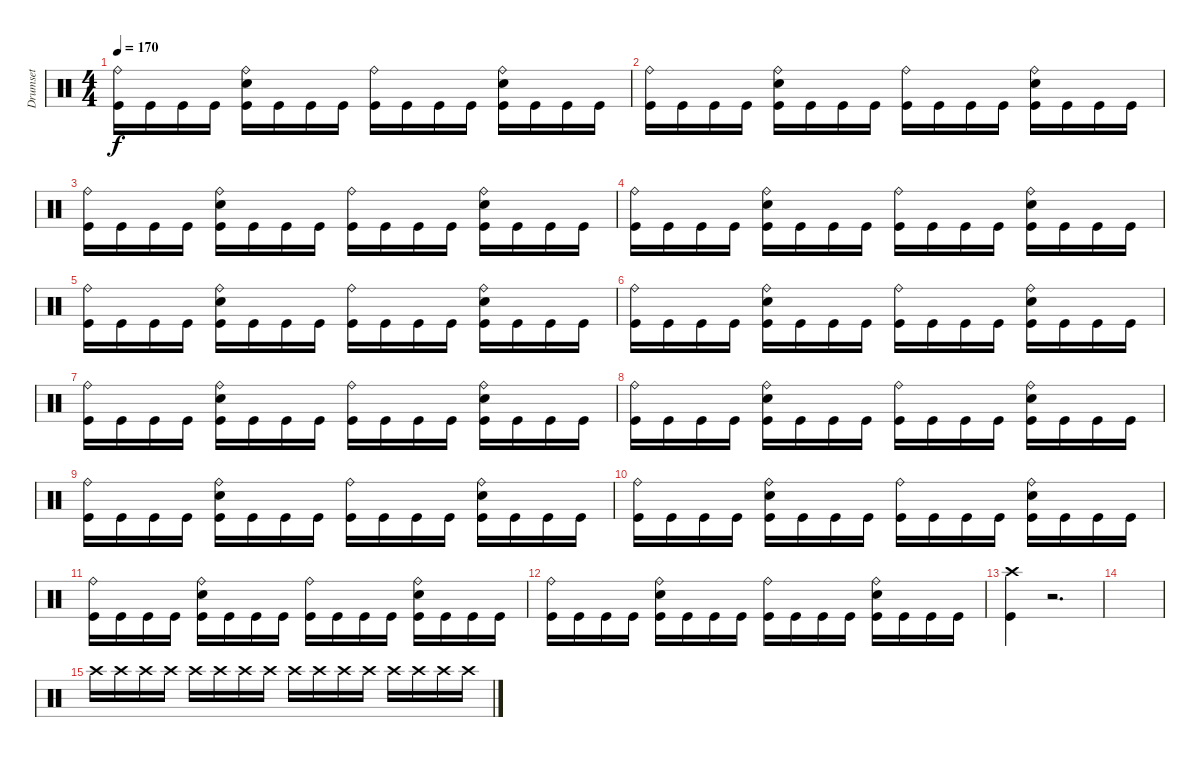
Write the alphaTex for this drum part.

\track ("Drumset" "Drumset") {instrument percussion}
\staff {score}
\articulation defaults
\ts (4 4)
\tempo 170
\clef neutral
\ks c
("Ride (bell)" "Kick (hit)").16{dy f} "Kick (hit)".16 "Kick (hit)".16 "Kick (hit)".16 ("Ride (bell)" "Snare (hit) 2" "Kick (hit)").16 "Kick (hit)".16 "Kick (hit)".16 "Kick (hit)".16 ("Ride (bell)" "Kick (hit)").16 "Kick (hit)".16 "Kick (hit)".16 "Kick (hit)".16 ("Ride (bell)" "Snare (hit) 2" "Kick (hit)").16 "Kick (hit)".16 "Kick (hit)".16 "Kick (hit)".16 |
("Ride (bell)" "Kick (hit)").16 "Kick (hit)".16 "Kick (hit)".16 "Kick (hit)".16 ("Ride (bell)" "Snare (hit) 2" "Kick (hit)").16 "Kick (hit)".16 "Kick (hit)".16 "Kick (hit)".16 ("Ride (bell)" "Kick (hit)").16 "Kick (hit)".16 "Kick (hit)".16 "Kick (hit)".16 ("Ride (bell)" "Snare (hit) 2" "Kick (hit)").16 "Kick (hit)".16 "Kick (hit)".16 "Kick (hit)".16 |
("Ride (bell)" "Kick (hit)").16 "Kick (hit)".16 "Kick (hit)".16 "Kick (hit)".16 ("Ride (bell)" "Snare (hit) 2" "Kick (hit)").16 "Kick (hit)".16 "Kick (hit)".16 "Kick (hit)".16 ("Ride (bell)" "Kick (hit)").16 "Kick (hit)".16 "Kick (hit)".16 "Kick (hit)".16 ("Ride (bell)" "Snare (hit) 2" "Kick (hit)").16 "Kick (hit)".16 "Kick (hit)".16 "Kick (hit)".16 |
("Ride (bell)" "Kick (hit)").16 "Kick (hit)".16 "Kick (hit)".16 "Kick (hit)".16 ("Ride (bell)" "Snare (hit) 2" "Kick (hit)").16 "Kick (hit)".16 "Kick (hit)".16 "Kick (hit)".16 ("Ride (bell)" "Kick (hit)").16 "Kick (hit)".16 "Kick (hit)".16 "Kick (hit)".16 ("Ride (bell)" "Snare (hit) 2" "Kick (hit)").16 "Kick (hit)".16 "Kick (hit)".16 "Kick (hit)".16 |
("Ride (bell)" "Kick (hit)").16 "Kick (hit)".16 "Kick (hit)".16 "Kick (hit)".16 ("Ride (bell)" "Snare (hit) 2" "Kick (hit)").16 "Kick (hit)".16 "Kick (hit)".16 "Kick (hit)".16 ("Ride (bell)" "Kick (hit)").16 "Kick (hit)".16 "Kick (hit)".16 "Kick (hit)".16 ("Ride (bell)" "Snare (hit) 2" "Kick (hit)").16 "Kick (hit)".16 "Kick (hit)".16 "Kick (hit)".16 |
("Ride (bell)" "Kick (hit)").16 "Kick (hit)".16 "Kick (hit)".16 "Kick (hit)".16 ("Ride (bell)" "Snare (hit) 2" "Kick (hit)").16 "Kick (hit)".16 "Kick (hit)".16 "Kick (hit)".16 ("Ride (bell)" "Kick (hit)").16 "Kick (hit)".16 "Kick (hit)".16 "Kick (hit)".16 ("Ride (bell)" "Snare (hit) 2" "Kick (hit)").16 "Kick (hit)".16 "Kick (hit)".16 "Kick (hit)".16 |
("Ride (bell)" "Kick (hit)").16 "Kick (hit)".16 "Kick (hit)".16 "Kick (hit)".16 ("Ride (bell)" "Snare (hit) 2" "Kick (hit)").16 "Kick (hit)".16 "Kick (hit)".16 "Kick (hit)".16 ("Ride (bell)" "Kick (hit)").16 "Kick (hit)".16 "Kick (hit)".16 "Kick (hit)".16 ("Ride (bell)" "Snare (hit) 2" "Kick (hit)").16 "Kick (hit)".16 "Kick (hit)".16 "Kick (hit)".16 |
("Ride (bell)" "Kick (hit)").16 "Kick (hit)".16 "Kick (hit)".16 "Kick (hit)".16 ("Ride (bell)" "Snare (hit) 2" "Kick (hit)").16 "Kick (hit)".16 "Kick (hit)".16 "Kick (hit)".16 ("Ride (bell)" "Kick (hit)").16 "Kick (hit)".16 "Kick (hit)".16 "Kick (hit)".16 ("Ride (bell)" "Snare (hit) 2" "Kick (hit)").16 "Kick (hit)".16 "Kick (hit)".16 "Kick (hit)".16 |
("Ride (bell)" "Kick (hit)").16 "Kick (hit)".16 "Kick (hit)".16 "Kick (hit)".16 ("Ride (bell)" "Snare (hit) 2" "Kick (hit)").16 "Kick (hit)".16 "Kick (hit)".16 "Kick (hit)".16 ("Ride (bell)" "Kick (hit)").16 "Kick (hit)".16 "Kick (hit)".16 "Kick (hit)".16 ("Ride (bell)" "Snare (hit) 2" "Kick (hit)").16 "Kick (hit)".16 "Kick (hit)".16 "Kick (hit)".16 |
("Ride (bell)" "Kick (hit)").16 "Kick (hit)".16 "Kick (hit)".16 "Kick (hit)".16 ("Ride (bell)" "Snare (hit) 2" "Kick (hit)").16 "Kick (hit)".16 "Kick (hit)".16 "Kick (hit)".16 ("Ride (bell)" "Kick (hit)").16 "Kick (hit)".16 "Kick (hit)".16 "Kick (hit)".16 ("Ride (bell)" "Snare (hit) 2" "Kick (hit)").16 "Kick (hit)".16 "Kick (hit)".16 "Kick (hit)".16 |
("Ride (bell)" "Kick (hit)").16 "Kick (hit)".16 "Kick (hit)".16 "Kick (hit)".16 ("Ride (bell)" "Snare (hit) 2" "Kick (hit)").16 "Kick (hit)".16 "Kick (hit)".16 "Kick (hit)".16 ("Ride (bell)" "Kick (hit)").16 "Kick (hit)".16 "Kick (hit)".16 "Kick (hit)".16 ("Ride (bell)" "Snare (hit) 2" "Kick (hit)").16 "Kick (hit)".16 "Kick (hit)".16 "Kick (hit)".16 |
("Ride (bell)" "Kick (hit)").16 "Kick (hit)".16 "Kick (hit)".16 "Kick (hit)".16 ("Ride (bell)" "Snare (hit) 2" "Kick (hit)").16 "Kick (hit)".16 "Kick (hit)".16 "Kick (hit)".16 ("Ride (bell)" "Kick (hit)").16 "Kick (hit)".16 "Kick (hit)".16 "Kick (hit)".16 ("Ride (bell)" "Snare (hit) 2" "Kick (hit)").16 "Kick (hit)".16 "Kick (hit)".16 "Kick (hit)".16 |
("Crash high (hit)" "Kick (hit)").4 r.2{d} |
|
"Crash high (hit)".16 "Crash high (hit)".16 "Crash high (hit)".16 "Crash high (hit)".16 "Crash high (hit)".16 "Crash high (hit)".16 "Crash high (hit)".16 "Crash high (hit)".16 "Crash high (hit)".16 "Crash high (hit)".16 "Crash high (hit)".16 "Crash high (hit)".16 "Crash high (hit)".16 "Crash high (hit)".16 "Crash high (hit)".16 "Crash high (hit)".16
